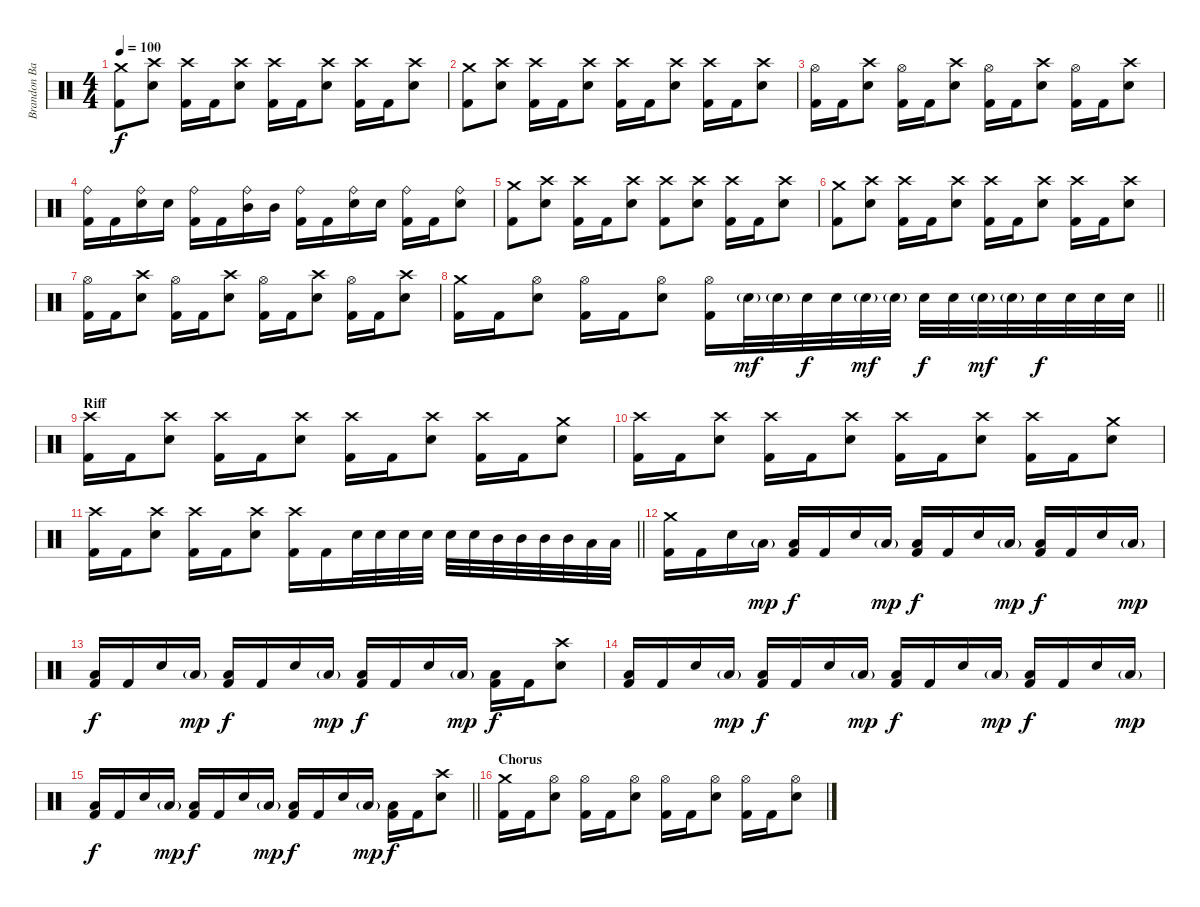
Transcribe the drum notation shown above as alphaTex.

\track ("Brandon Barnes" "Brandon Ba") {instrument percussion}
\staff {score}
\articulation defaults
\ts (4 4)
\tempo 100
\clef neutral
\ks c
("Crash medium (hit)" "Kick (hit) 2").8{dy f} ("Crash high (hit)" "Electric Snare (hit)").8 ("Crash high (hit)" "Kick (hit) 2").16 "Kick (hit) 2".16 ("Crash high (hit)" "Electric Snare (hit)").8 ("Crash high (hit)" "Kick (hit) 2").16 "Kick (hit) 2".16 ("Crash high (hit)" "Electric Snare (hit)").8 ("Crash high (hit)" "Kick (hit) 2").16 "Kick (hit) 2".16 ("Crash high (hit)" "Electric Snare (hit)").8 |
("Crash medium (hit)" "Kick (hit) 2").8 ("Crash high (hit)" "Electric Snare (hit)").8 ("Crash high (hit)" "Kick (hit) 2").16 "Kick (hit) 2".16 ("Crash high (hit)" "Electric Snare (hit)").8 ("Crash high (hit)" "Kick (hit) 2").16 "Kick (hit) 2".16 ("Crash high (hit)" "Electric Snare (hit)").8 ("Crash high (hit)" "Kick (hit) 2").16 "Kick (hit) 2".16 ("Crash high (hit)" "Electric Snare (hit)").8 |
("Hi-Hat (open)" "Kick (hit) 2").16 "Kick (hit) 2".16 ("Crash high (hit)" "Electric Snare (hit)").8 ("Hi-Hat (open)" "Kick (hit) 2").16 "Kick (hit) 2".16 ("Crash high (hit)" "Electric Snare (hit)").8 ("Hi-Hat (open)" "Kick (hit) 2").16 "Kick (hit) 2".16 ("Crash high (hit)" "Electric Snare (hit)").8 ("Hi-Hat (open)" "Kick (hit) 2").16 "Kick (hit) 2".16 ("Crash high (hit)" "Electric Snare (hit)").8 |
("Ride (bell)" "Kick (hit) 2").16 "Kick (hit) 2".16 ("Ride (bell)" "Electric Snare (hit)").16 "Electric Snare (hit)".16 ("Ride (bell)" "Kick (hit) 2").16 "Kick (hit) 2".16 ("Ride (bell)" "Mid Tom (hit)").16 "Mid Tom (hit)".16 ("Ride (bell)" "Kick (hit) 2").16 "Kick (hit) 2".16 ("Ride (bell)" "Electric Snare (hit)").16 "Electric Snare (hit)".16 ("Ride (bell)" "Kick (hit) 2").16 "Kick (hit) 2".16 ("Ride (bell)" "Electric Snare (hit)").8 |
("Crash medium (hit)" "Kick (hit) 2").8 ("Crash high (hit)" "Electric Snare (hit)").8 ("Crash high (hit)" "Kick (hit) 2").16 "Kick (hit) 2".16 ("Crash high (hit)" "Electric Snare (hit)").8 ("Crash high (hit)" "Kick (hit) 2").8 ("Crash high (hit)" "Electric Snare (hit)").8 ("Crash high (hit)" "Kick (hit) 2").16 "Kick (hit) 2".16 ("Crash high (hit)" "Electric Snare (hit)").8 |
("Crash medium (hit)" "Kick (hit) 2").8 ("Crash high (hit)" "Electric Snare (hit)").8 ("Crash high (hit)" "Kick (hit) 2").16 "Kick (hit) 2".16 ("Crash high (hit)" "Electric Snare (hit)").8 ("Crash high (hit)" "Kick (hit) 2").16 "Kick (hit) 2".16 ("Crash high (hit)" "Electric Snare (hit)").8 ("Crash high (hit)" "Kick (hit) 2").16 "Kick (hit) 2".16 ("Crash high (hit)" "Electric Snare (hit)").8 |
("Hi-Hat (open)" "Kick (hit) 2").16 "Kick (hit) 2".16 ("Crash high (hit)" "Electric Snare (hit)").8 ("Hi-Hat (open)" "Kick (hit) 2").16 "Kick (hit) 2".16 ("Crash high (hit)" "Electric Snare (hit)").8 ("Hi-Hat (open)" "Kick (hit) 2").16 "Kick (hit) 2".16 ("Crash high (hit)" "Electric Snare (hit)").8 ("Hi-Hat (open)" "Kick (hit) 2").16 "Kick (hit) 2".16 ("Crash high (hit)" "Electric Snare (hit)").8 |
\barLineRight lightlight
("Crash medium (hit)" "Kick (hit) 2").16 "Kick (hit) 2".16 ("Hi-Hat (open)" "Electric Snare (hit)").8 ("Hi-Hat (open)" "Kick (hit) 2").16 "Kick (hit) 2".16 ("Hi-Hat (open)" "Electric Snare (hit)").8 ("Hi-Hat (open)" "Kick (hit) 2").16 "Electric Snare (hit)"{g}.32{dy mf} "Electric Snare (hit)"{g}.32 "Electric Snare (hit)".32{dy f} "Electric Snare (hit)".32 "Electric Snare (hit)"{g}.32{dy mf} "Electric Snare (hit)"{g}.32 "Electric Snare (hit)".32{dy f} "Electric Snare (hit)".32 "Electric Snare (hit)"{g}.32{dy mf} "Electric Snare (hit)"{g}.32 "Electric Snare (hit)".32{dy f} "Electric Snare (hit)".32 "Electric Snare (hit)".32 "Electric Snare (hit)".32 |
\section ("" "Riff")
("Crash high (hit)" "Kick (hit) 2").16 "Kick (hit) 2".16 ("Crash high (hit)" "Electric Snare (hit)").8 ("Crash high (hit)" "Kick (hit) 2").16 "Kick (hit) 2".16 ("Crash high (hit)" "Electric Snare (hit)").8 ("Crash high (hit)" "Kick (hit) 2").16 "Kick (hit) 2".16 ("Crash high (hit)" "Electric Snare (hit)").8 ("Crash high (hit)" "Kick (hit) 2").16 "Kick (hit) 2".16 ("Crash medium (hit)" "Electric Snare (hit)").8 |
("Crash high (hit)" "Kick (hit) 2").16 "Kick (hit) 2".16 ("Crash high (hit)" "Electric Snare (hit)").8 ("Crash high (hit)" "Kick (hit) 2").16 "Kick (hit) 2".16 ("Crash high (hit)" "Electric Snare (hit)").8 ("Crash high (hit)" "Kick (hit) 2").16 "Kick (hit) 2".16 ("Crash high (hit)" "Electric Snare (hit)").8 ("Crash high (hit)" "Kick (hit) 2").16 "Kick (hit) 2".16 ("Crash medium (hit)" "Electric Snare (hit)").8 |
\barLineRight lightlight
("Crash high (hit)" "Kick (hit) 2").16 "Kick (hit) 2".16 ("Crash high (hit)" "Electric Snare (hit)").8 ("Crash high (hit)" "Kick (hit) 2").16 "Kick (hit) 2".16 ("Crash high (hit)" "Electric Snare (hit)").8 ("Crash high (hit)" "Kick (hit) 2").16 "Kick (hit) 2".16 "Electric Snare (hit)".32 "Electric Snare (hit)".32 "Electric Snare (hit)".32 "Electric Snare (hit)".32 "Electric Snare (hit)".32 "Electric Snare (hit)".32 "Mid Tom (hit)".32 "Mid Tom (hit)".32 "Mid Tom (hit)".32 "Mid Tom (hit)".32 "Low Tom (hit)".32 "Low Tom (hit)".32 |
("Crash medium (hit)" "Kick (hit) 2").16 "Kick (hit) 2".16 "Electric Snare (hit)".16 "Low Floor Tom (hit)"{g}.16{dy mp} ("Low Floor Tom (hit)" "Kick (hit) 2").16{dy f} "Kick (hit) 2".16 "Electric Snare (hit)".16 "Low Floor Tom (hit)"{g}.16{dy mp} ("Low Floor Tom (hit)" "Kick (hit) 2").16{dy f} "Kick (hit) 2".16 "Electric Snare (hit)".16 "Low Floor Tom (hit)"{g}.16{dy mp} ("Low Floor Tom (hit)" "Kick (hit) 2").16{dy f} "Kick (hit) 2".16 "Electric Snare (hit)".16 "Low Floor Tom (hit)"{g}.16{dy mp} |
("Low Floor Tom (hit)" "Kick (hit) 2").16{dy f} "Kick (hit) 2".16 "Electric Snare (hit)".16 "Low Floor Tom (hit)"{g}.16{dy mp} ("Low Floor Tom (hit)" "Kick (hit) 2").16{dy f} "Kick (hit) 2".16 "Electric Snare (hit)".16 "Low Floor Tom (hit)"{g}.16{dy mp} ("Low Floor Tom (hit)" "Kick (hit) 2").16{dy f} "Kick (hit) 2".16 "Electric Snare (hit)".16 "Low Floor Tom (hit)"{g}.16{dy mp} ("Low Floor Tom (hit)" "Kick (hit) 2").16{dy f} "Kick (hit) 2".16 ("Crash high (hit)" "Electric Snare (hit)").8 |
("Low Floor Tom (hit)" "Kick (hit) 2").16 "Kick (hit) 2".16 "Electric Snare (hit)".16 "Low Floor Tom (hit)"{g}.16{dy mp} ("Low Floor Tom (hit)" "Kick (hit) 2").16{dy f} "Kick (hit) 2".16 "Electric Snare (hit)".16 "Low Floor Tom (hit)"{g}.16{dy mp} ("Low Floor Tom (hit)" "Kick (hit) 2").16{dy f} "Kick (hit) 2".16 "Electric Snare (hit)".16 "Low Floor Tom (hit)"{g}.16{dy mp} ("Low Floor Tom (hit)" "Kick (hit) 2").16{dy f} "Kick (hit) 2".16 "Electric Snare (hit)".16 "Low Floor Tom (hit)"{g}.16{dy mp} |
\barLineRight lightlight
("Low Floor Tom (hit)" "Kick (hit) 2").16{dy f} "Kick (hit) 2".16 "Electric Snare (hit)".16 "Low Floor Tom (hit)"{g}.16{dy mp} ("Low Floor Tom (hit)" "Kick (hit) 2").16{dy f} "Kick (hit) 2".16 "Electric Snare (hit)".16 "Low Floor Tom (hit)"{g}.16{dy mp} ("Low Floor Tom (hit)" "Kick (hit) 2").16{dy f} "Kick (hit) 2".16 "Electric Snare (hit)".16 "Low Floor Tom (hit)"{g}.16{dy mp} ("Low Floor Tom (hit)" "Kick (hit) 2").16{dy f} "Kick (hit) 2".16 ("Crash high (hit)" "Electric Snare (hit)").8 |
\section ("" "Chorus")
("Crash medium (hit)" "Kick (hit) 2").16 "Kick (hit) 2".16 ("Hi-Hat (open)" "Electric Snare (hit)").8 ("Hi-Hat (open)" "Kick (hit) 2").16 "Kick (hit) 2".16 ("Hi-Hat (open)" "Electric Snare (hit)").8 ("Hi-Hat (open)" "Kick (hit) 2").16 "Kick (hit) 2".16 ("Hi-Hat (open)" "Electric Snare (hit)").8 ("Hi-Hat (open)" "Kick (hit) 2").16 "Kick (hit) 2".16 ("Hi-Hat (open)" "Electric Snare (hit)").8
